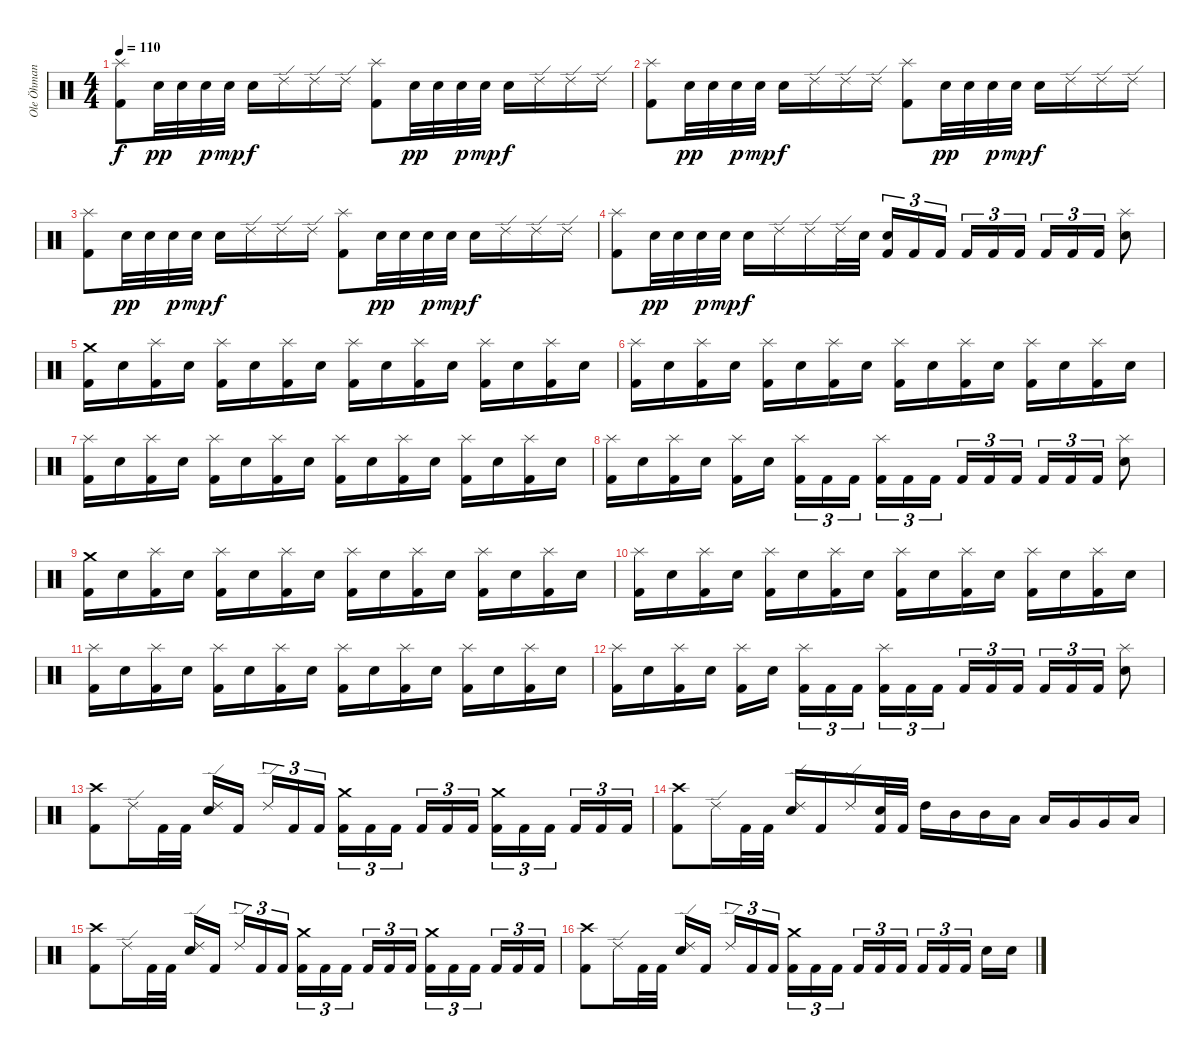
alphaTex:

\track ("Ole Öhman" "Ole Öhman") {instrument percussion}
\staff {score}
\articulation defaults
\ts (4 4)
\tempo 110
\clef neutral
\ks c
("Splash (hit)" "Kick (hit) 2").8{dy f} "Electric Snare (hit)".32{dy pp} "Electric Snare (hit)".32 "Electric Snare (hit)".32{dy p} "Electric Snare (hit)".32{dy mp} "Electric Snare (hit)".16{dy f} "Ride (edge) 2".16 "Ride (edge) 2".16 "Ride (edge) 2".16 ("Splash (hit)" "Kick (hit) 2").8 "Electric Snare (hit)".32{dy pp} "Electric Snare (hit)".32 "Electric Snare (hit)".32{dy p} "Electric Snare (hit)".32{dy mp} "Electric Snare (hit)".16{dy f} "Ride (edge) 2".16 "Ride (edge) 2".16 "Ride (edge) 2".16 |
("Splash (hit)" "Kick (hit) 2").8 "Electric Snare (hit)".32{dy pp} "Electric Snare (hit)".32 "Electric Snare (hit)".32{dy p} "Electric Snare (hit)".32{dy mp} "Electric Snare (hit)".16{dy f} "Ride (edge) 2".16 "Ride (edge) 2".16 "Ride (edge) 2".16 ("Splash (hit)" "Kick (hit) 2").8 "Electric Snare (hit)".32{dy pp} "Electric Snare (hit)".32 "Electric Snare (hit)".32{dy p} "Electric Snare (hit)".32{dy mp} "Electric Snare (hit)".16{dy f} "Ride (edge) 2".16 "Ride (edge) 2".16 "Ride (edge) 2".16 |
("Splash (hit)" "Kick (hit) 2").8 "Electric Snare (hit)".32{dy pp} "Electric Snare (hit)".32 "Electric Snare (hit)".32{dy p} "Electric Snare (hit)".32{dy mp} "Electric Snare (hit)".16{dy f} "Ride (edge) 2".16 "Ride (edge) 2".16 "Ride (edge) 2".16 ("Splash (hit)" "Kick (hit) 2").8 "Electric Snare (hit)".32{dy pp} "Electric Snare (hit)".32 "Electric Snare (hit)".32{dy p} "Electric Snare (hit)".32{dy mp} "Electric Snare (hit)".16{dy f} "Ride (edge) 2".16 "Ride (edge) 2".16 "Ride (edge) 2".16 |
("Splash (hit)" "Kick (hit) 2").8 "Electric Snare (hit)".32{dy pp} "Electric Snare (hit)".32 "Electric Snare (hit)".32{dy p} "Electric Snare (hit)".32{dy mp} "Electric Snare (hit)".16{dy f} "Ride (edge) 2".16 "Ride (edge) 2".16 "Ride (edge) 2".32 "Electric Snare (hit)".32 ("Electric Snare (hit)" "Kick (hit) 2").16{tu (3 2)} "Kick (hit) 2".16{tu (3 2)} "Kick (hit) 2".16{tu (3 2)} "Kick (hit) 2".16{tu (3 2)} "Kick (hit) 2".16{tu (3 2)} "Kick (hit) 2".16{tu (3 2)} "Kick (hit) 2".16{tu (3 2)} "Kick (hit) 2".16{tu (3 2)} "Kick (hit) 2".16{tu (3 2)} ("Splash (hit)" "Electric Snare (hit)").8 |
("Crash medium (hit)" "Kick (hit) 2").16 "Electric Snare (hit)".16 ("Splash (hit)" "Kick (hit) 2").16 "Electric Snare (hit)".16 ("Splash (hit)" "Kick (hit) 2").16 "Electric Snare (hit)".16 ("Splash (hit)" "Kick (hit) 2").16 "Electric Snare (hit)".16 ("Splash (hit)" "Kick (hit) 2").16 "Electric Snare (hit)".16 ("Splash (hit)" "Kick (hit) 2").16 "Electric Snare (hit)".16 ("Splash (hit)" "Kick (hit) 2").16 "Electric Snare (hit)".16 ("Splash (hit)" "Kick (hit) 2").16 "Electric Snare (hit)".16 |
("Splash (hit)" "Kick (hit) 2").16 "Electric Snare (hit)".16 ("Splash (hit)" "Kick (hit) 2").16 "Electric Snare (hit)".16 ("Splash (hit)" "Kick (hit) 2").16 "Electric Snare (hit)".16 ("Splash (hit)" "Kick (hit) 2").16 "Electric Snare (hit)".16 ("Splash (hit)" "Kick (hit) 2").16 "Electric Snare (hit)".16 ("Splash (hit)" "Kick (hit) 2").16 "Electric Snare (hit)".16 ("Splash (hit)" "Kick (hit) 2").16 "Electric Snare (hit)".16 ("Splash (hit)" "Kick (hit) 2").16 "Electric Snare (hit)".16 |
("Splash (hit)" "Kick (hit) 2").16 "Electric Snare (hit)".16 ("Splash (hit)" "Kick (hit) 2").16 "Electric Snare (hit)".16 ("Splash (hit)" "Kick (hit) 2").16 "Electric Snare (hit)".16 ("Splash (hit)" "Kick (hit) 2").16 "Electric Snare (hit)".16 ("Splash (hit)" "Kick (hit) 2").16 "Electric Snare (hit)".16 ("Splash (hit)" "Kick (hit) 2").16 "Electric Snare (hit)".16 ("Splash (hit)" "Kick (hit) 2").16 "Electric Snare (hit)".16 ("Splash (hit)" "Kick (hit) 2").16 "Electric Snare (hit)".16 |
("Splash (hit)" "Kick (hit) 2").16 "Electric Snare (hit)".16 ("Splash (hit)" "Kick (hit) 2").16 "Electric Snare (hit)".16 ("Splash (hit)" "Kick (hit) 2").16 "Electric Snare (hit)".16 ("Splash (hit)" "Kick (hit) 2").16{tu (3 2)} "Kick (hit) 2".16{tu (3 2)} "Kick (hit) 2".16{tu (3 2)} ("Splash (hit)" "Kick (hit) 2").16{tu (3 2)} "Kick (hit) 2".16{tu (3 2)} "Kick (hit) 2".16{tu (3 2)} "Kick (hit) 2".16{tu (3 2)} "Kick (hit) 2".16{tu (3 2)} "Kick (hit) 2".16{tu (3 2)} "Kick (hit) 2".16{tu (3 2)} "Kick (hit) 2".16{tu (3 2)} "Kick (hit) 2".16{tu (3 2)} ("Splash (hit)" "Electric Snare (hit)").8 |
("Crash medium (hit)" "Kick (hit) 2").16 "Electric Snare (hit)".16 ("Splash (hit)" "Kick (hit) 2").16 "Electric Snare (hit)".16 ("Splash (hit)" "Kick (hit) 2").16 "Electric Snare (hit)".16 ("Splash (hit)" "Kick (hit) 2").16 "Electric Snare (hit)".16 ("Splash (hit)" "Kick (hit) 2").16 "Electric Snare (hit)".16 ("Splash (hit)" "Kick (hit) 2").16 "Electric Snare (hit)".16 ("Splash (hit)" "Kick (hit) 2").16 "Electric Snare (hit)".16 ("Splash (hit)" "Kick (hit) 2").16 "Electric Snare (hit)".16 |
("Splash (hit)" "Kick (hit) 2").16 "Electric Snare (hit)".16 ("Splash (hit)" "Kick (hit) 2").16 "Electric Snare (hit)".16 ("Splash (hit)" "Kick (hit) 2").16 "Electric Snare (hit)".16 ("Splash (hit)" "Kick (hit) 2").16 "Electric Snare (hit)".16 ("Splash (hit)" "Kick (hit) 2").16 "Electric Snare (hit)".16 ("Splash (hit)" "Kick (hit) 2").16 "Electric Snare (hit)".16 ("Splash (hit)" "Kick (hit) 2").16 "Electric Snare (hit)".16 ("Splash (hit)" "Kick (hit) 2").16 "Electric Snare (hit)".16 |
("Splash (hit)" "Kick (hit) 2").16 "Electric Snare (hit)".16 ("Splash (hit)" "Kick (hit) 2").16 "Electric Snare (hit)".16 ("Splash (hit)" "Kick (hit) 2").16 "Electric Snare (hit)".16 ("Splash (hit)" "Kick (hit) 2").16 "Electric Snare (hit)".16 ("Splash (hit)" "Kick (hit) 2").16 "Electric Snare (hit)".16 ("Splash (hit)" "Kick (hit) 2").16 "Electric Snare (hit)".16 ("Splash (hit)" "Kick (hit) 2").16 "Electric Snare (hit)".16 ("Splash (hit)" "Kick (hit) 2").16 "Electric Snare (hit)".16 |
("Splash (hit)" "Kick (hit) 2").16 "Electric Snare (hit)".16 ("Splash (hit)" "Kick (hit) 2").16 "Electric Snare (hit)".16 ("Splash (hit)" "Kick (hit) 2").16 "Electric Snare (hit)".16 ("Splash (hit)" "Kick (hit) 2").16{tu (3 2)} "Kick (hit) 2".16{tu (3 2)} "Kick (hit) 2".16{tu (3 2)} ("Splash (hit)" "Kick (hit) 2").16{tu (3 2)} "Kick (hit) 2".16{tu (3 2)} "Kick (hit) 2".16{tu (3 2)} "Kick (hit) 2".16{tu (3 2)} "Kick (hit) 2".16{tu (3 2)} "Kick (hit) 2".16{tu (3 2)} "Kick (hit) 2".16{tu (3 2)} "Kick (hit) 2".16{tu (3 2)} "Kick (hit) 2".16{tu (3 2)} ("Splash (hit)" "Electric Snare (hit)").8 |
("Crash high (hit)" "Kick (hit) 2").8 "Ride (edge) 2".16 "Kick (hit) 2".32 "Kick (hit) 2".32 ("Ride (edge) 2" "Electric Snare (hit)").16 "Kick (hit) 2".16 "Ride (edge) 2".16{tu (3 2)} "Kick (hit) 2".16{tu (3 2)} "Kick (hit) 2".16{tu (3 2)} ("Crash medium (hit)" "Kick (hit) 2").16{tu (3 2)} "Kick (hit) 2".16{tu (3 2)} "Kick (hit) 2".16{tu (3 2)} "Kick (hit) 2".16{tu (3 2)} "Kick (hit) 2".16{tu (3 2)} "Kick (hit) 2".16{tu (3 2)} ("Crash medium (hit)" "Kick (hit) 2").16{tu (3 2)} "Kick (hit) 2".16{tu (3 2)} "Kick (hit) 2".16{tu (3 2)} "Kick (hit) 2".16{tu (3 2)} "Kick (hit) 2".16{tu (3 2)} "Kick (hit) 2".16{tu (3 2)} |
("Crash high (hit)" "Kick (hit) 2").8 "Ride (edge) 2".16 "Kick (hit) 2".32 "Kick (hit) 2".32 ("Ride (edge) 2" "Electric Snare (hit)").16 "Kick (hit) 2".16 "Ride (edge) 2".16 ("Electric Snare (hit)" "Kick (hit) 2").32 "Kick (hit) 2".32 "High Tom (hit)".16 "Mid Tom (hit)".16 "Mid Tom (hit)".16 "Low Tom (hit)".16 "Low Tom (hit)".16 "Very Low Tom (hit)".16 "Very Low Tom (hit)".16 "Low Floor Tom (hit)".16 |
("Crash high (hit)" "Kick (hit) 2").8 "Ride (edge) 2".16 "Kick (hit) 2".32 "Kick (hit) 2".32 ("Ride (edge) 2" "Electric Snare (hit)").16 "Kick (hit) 2".16 "Ride (edge) 2".16{tu (3 2)} "Kick (hit) 2".16{tu (3 2)} "Kick (hit) 2".16{tu (3 2)} ("Crash medium (hit)" "Kick (hit) 2").16{tu (3 2)} "Kick (hit) 2".16{tu (3 2)} "Kick (hit) 2".16{tu (3 2)} "Kick (hit) 2".16{tu (3 2)} "Kick (hit) 2".16{tu (3 2)} "Kick (hit) 2".16{tu (3 2)} ("Crash medium (hit)" "Kick (hit) 2").16{tu (3 2)} "Kick (hit) 2".16{tu (3 2)} "Kick (hit) 2".16{tu (3 2)} "Kick (hit) 2".16{tu (3 2)} "Kick (hit) 2".16{tu (3 2)} "Kick (hit) 2".16{tu (3 2)} |
("Crash high (hit)" "Kick (hit) 2").8 "Ride (edge) 2".16 "Kick (hit) 2".32 "Kick (hit) 2".32 ("Ride (edge) 2" "Electric Snare (hit)").16 "Kick (hit) 2".16 "Ride (edge) 2".16{tu (3 2)} "Kick (hit) 2".16{tu (3 2)} "Kick (hit) 2".16{tu (3 2)} ("Crash medium (hit)" "Kick (hit) 2").16{tu (3 2)} "Kick (hit) 2".16{tu (3 2)} "Kick (hit) 2".16{tu (3 2)} "Kick (hit) 2".16{tu (3 2)} "Kick (hit) 2".16{tu (3 2)} "Kick (hit) 2".16{tu (3 2)} "Kick (hit) 2".16{tu (3 2)} "Kick (hit) 2".16{tu (3 2)} "Kick (hit) 2".16{tu (3 2)} "Electric Snare (hit)".16 "Electric Snare (hit)".16
